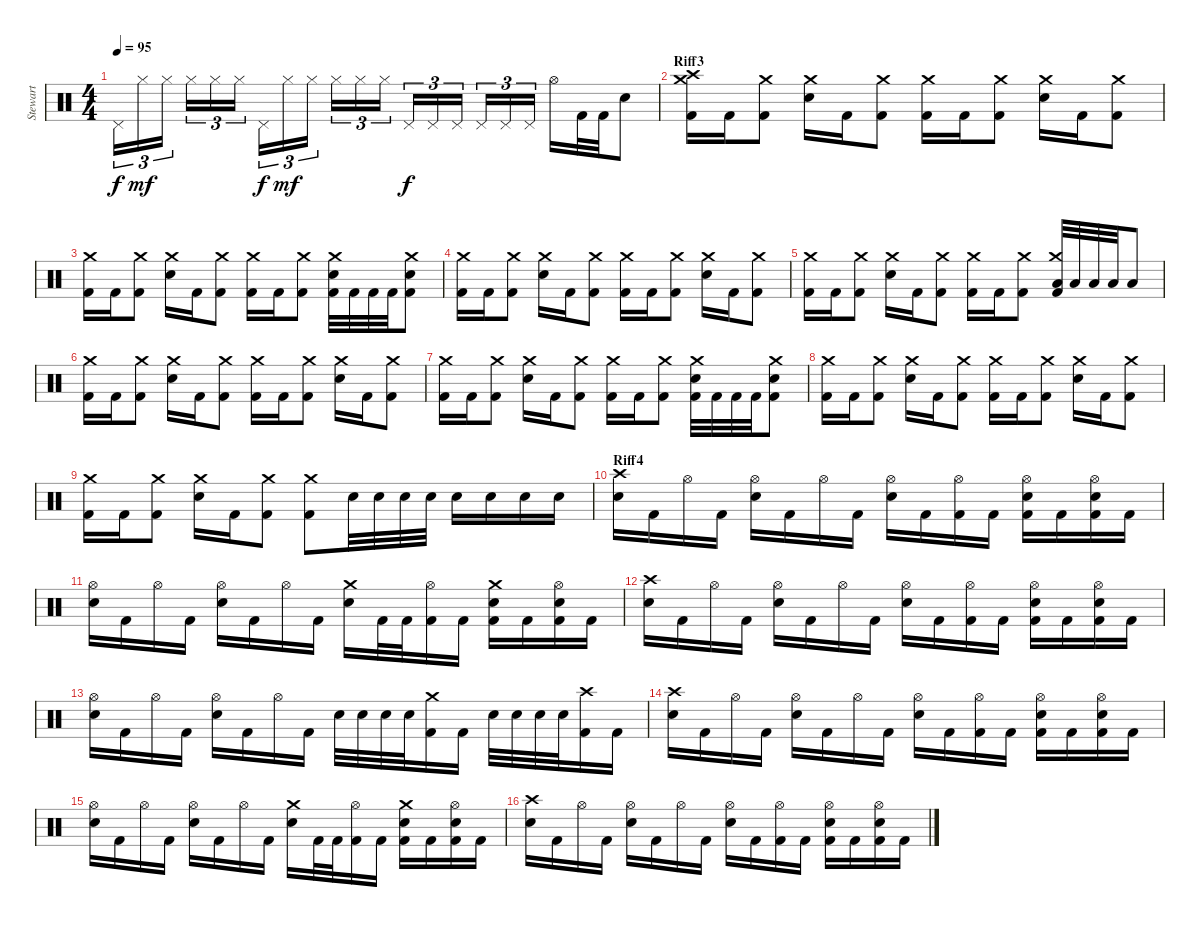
\track ("Stewart" "Stewart") {instrument percussion}
\staff {score}
\articulation defaults
\ts (4 4)
\tempo 95
\clef neutral
\ks c "Pedal Hi-Hat (hit)".16{tu (3 2) dy f} "Hi-Hat (closed)".16{tu (3 2) dy mf} "Hi-Hat (closed)".16{tu (3 2)} "Hi-Hat (closed)".16{tu (3 2)} "Hi-Hat (closed)".16{tu (3 2)} "Hi-Hat (closed)".16{tu (3 2)} "Pedal Hi-Hat (hit)".16{tu (3 2) dy f} "Hi-Hat (closed)".16{tu (3 2) dy mf} "Hi-Hat (closed)".16{tu (3 2)} "Hi-Hat (closed)".16{tu (3 2)} "Hi-Hat (closed)".16{tu (3 2)} "Hi-Hat (closed)".16{tu (3 2)} "Pedal Hi-Hat (hit)".16{tu (3 2) dy f} "Pedal Hi-Hat (hit)".16{tu (3 2)} "Pedal Hi-Hat (hit)".16{tu (3 2)} "Pedal Hi-Hat (hit)".16{tu (3 2)} "Pedal Hi-Hat (hit)".16{tu (3 2)} "Pedal Hi-Hat (hit)".16{tu (3 2)} "Hi-Hat (open)".16 "Kick (hit) 2".32 "Kick (hit) 2".32 "Snare (hit) 2".8
|
\section ("" "Riff3")
("Crash medium (hit)" "Crash high (hit)" "Kick (hit) 2").16 "Kick (hit) 2".16 ("Crash medium (hit)" "Kick (hit) 2").8 ("Crash medium (hit)" "Snare (hit) 2").16 "Kick (hit) 2".16 ("Crash medium (hit)" "Kick (hit) 2").8 ("Crash medium (hit)" "Kick (hit) 2").16 "Kick (hit) 2".16 ("Crash medium (hit)" "Kick (hit) 2").8 ("Crash medium (hit)" "Snare (hit) 2").16 "Kick (hit) 2".16 ("Crash medium (hit)" "Kick (hit) 2").8 |
("Crash medium (hit)" "Kick (hit) 2").16 "Kick (hit) 2".16 ("Crash medium (hit)" "Kick (hit) 2").8 ("Crash medium (hit)" "Snare (hit) 2").16 "Kick (hit) 2".16 ("Crash medium (hit)" "Kick (hit) 2").8 ("Crash medium (hit)" "Kick (hit) 2").16 "Kick (hit) 2".16 ("Crash medium (hit)" "Kick (hit) 2").8 ("Crash medium (hit)" "Snare (hit) 2" "Kick (hit) 2").32 "Kick (hit) 2".32 "Kick (hit) 2".32 "Kick (hit) 2".32 ("Crash medium (hit)" "Snare (hit) 2" "Kick (hit) 2").8 |
("Crash medium (hit)" "Kick (hit) 2").16 "Kick (hit) 2".16 ("Crash medium (hit)" "Kick (hit) 2").8 ("Crash medium (hit)" "Snare (hit) 2").16 "Kick (hit) 2".16 ("Crash medium (hit)" "Kick (hit) 2").8 ("Crash medium (hit)" "Kick (hit) 2").16 "Kick (hit) 2".16 ("Crash medium (hit)" "Kick (hit) 2").8 ("Crash medium (hit)" "Snare (hit) 2").16 "Kick (hit) 2".16 ("Crash medium (hit)" "Kick (hit) 2").8 |
("Crash medium (hit)" "Kick (hit) 2").16 "Kick (hit) 2".16 ("Crash medium (hit)" "Kick (hit) 2").8 ("Crash medium (hit)" "Snare (hit) 2").16 "Kick (hit) 2".16 ("Crash medium (hit)" "Kick (hit) 2").8 ("Crash medium (hit)" "Kick (hit) 2").16 "Kick (hit) 2".16 ("Crash medium (hit)" "Kick (hit) 2").8 ("Crash medium (hit)" "Low Tom (hit)" "Kick (hit) 2").32 "Low Tom (hit)".32 "Low Tom (hit)".32 "Low Tom (hit)".32 "Low Tom (hit)".8 |
("Crash medium (hit)" "Kick (hit) 2").16 "Kick (hit) 2".16 ("Crash medium (hit)" "Kick (hit) 2").8 ("Crash medium (hit)" "Snare (hit) 2").16 "Kick (hit) 2".16 ("Crash medium (hit)" "Kick (hit) 2").8 ("Crash medium (hit)" "Kick (hit) 2").16 "Kick (hit) 2".16 ("Crash medium (hit)" "Kick (hit) 2").8 ("Crash medium (hit)" "Snare (hit) 2").16 "Kick (hit) 2".16 ("Crash medium (hit)" "Kick (hit) 2").8 |
("Crash medium (hit)" "Kick (hit) 2").16 "Kick (hit) 2".16 ("Crash medium (hit)" "Kick (hit) 2").8 ("Crash medium (hit)" "Snare (hit) 2").16 "Kick (hit) 2".16 ("Crash medium (hit)" "Kick (hit) 2").8 ("Crash medium (hit)" "Kick (hit) 2").16 "Kick (hit) 2".16 ("Crash medium (hit)" "Kick (hit) 2").8 ("Crash medium (hit)" "Snare (hit) 2" "Kick (hit) 2").32 "Kick (hit) 2".32 "Kick (hit) 2".32 "Kick (hit) 2".32 ("Crash medium (hit)" "Snare (hit) 2" "Kick (hit) 2").8 |
("Crash medium (hit)" "Kick (hit) 2").16 "Kick (hit) 2".16 ("Crash medium (hit)" "Kick (hit) 2").8 ("Crash medium (hit)" "Snare (hit) 2").16 "Kick (hit) 2".16 ("Crash medium (hit)" "Kick (hit) 2").8 ("Crash medium (hit)" "Kick (hit) 2").16 "Kick (hit) 2".16 ("Crash medium (hit)" "Kick (hit) 2").8 ("Crash medium (hit)" "Snare (hit) 2").16 "Kick (hit) 2".16 ("Crash medium (hit)" "Kick (hit) 2").8 |
("Crash medium (hit)" "Kick (hit) 2").16 "Kick (hit) 2".16 ("Crash medium (hit)" "Kick (hit) 2").8 ("Crash medium (hit)" "Snare (hit) 2").16 "Kick (hit) 2".16 ("Crash medium (hit)" "Kick (hit) 2").8 ("Crash medium (hit)" "Kick (hit) 2").8 "Snare (hit) 2".32 "Snare (hit) 2".32 "Snare (hit) 2".32 "Snare (hit) 2".32 "Snare (hit) 2".16 "Snare (hit) 2".16 "Snare (hit) 2".16 "Snare (hit) 2".16 |
\section ("" "Riff4")
("Crash high (hit)" "Snare (hit) 2").16 "Kick (hit) 2".16 "Hi-Hat (open)".16 "Kick (hit) 2".16 ("Hi-Hat (open)" "Snare (hit) 2").16 "Kick (hit) 2".16 "Hi-Hat (open)".16 "Kick (hit) 2".16 ("Hi-Hat (open)" "Snare (hit) 2").16 "Kick (hit) 2".16 ("Hi-Hat (open)" "Kick (hit) 2").16 "Kick (hit) 2".16 ("Hi-Hat (open)" "Snare (hit) 2" "Kick (hit) 2").16 "Kick (hit) 2".16 ("Hi-Hat (open)" "Snare (hit) 2" "Kick (hit) 2").16 "Kick (hit) 2".16 |
("Hi-Hat (open)" "Snare (hit) 2").16 "Kick (hit) 2".16 "Hi-Hat (open)".16 "Kick (hit) 2".16 ("Hi-Hat (open)" "Snare (hit) 2").16 "Kick (hit) 2".16 "Hi-Hat (open)".16 "Kick (hit) 2".16 ("Crash medium (hit)" "Snare (hit) 2").16 "Kick (hit) 2".32 "Kick (hit) 2".32 ("Hi-Hat (open)" "Kick (hit) 2").16 "Kick (hit) 2".16 ("Crash medium (hit)" "Snare (hit) 2" "Kick (hit) 2").16 "Kick (hit) 2".16 ("Hi-Hat (open)" "Snare (hit) 2" "Kick (hit) 2").16 "Kick (hit) 2".16 |
("Crash high (hit)" "Snare (hit) 2").16 "Kick (hit) 2".16 "Hi-Hat (open)".16 "Kick (hit) 2".16 ("Hi-Hat (open)" "Snare (hit) 2").16 "Kick (hit) 2".16 "Hi-Hat (open)".16 "Kick (hit) 2".16 ("Hi-Hat (open)" "Snare (hit) 2").16 "Kick (hit) 2".16 ("Hi-Hat (open)" "Kick (hit) 2").16 "Kick (hit) 2".16 ("Hi-Hat (open)" "Snare (hit) 2" "Kick (hit) 2").16 "Kick (hit) 2".16 ("Hi-Hat (open)" "Snare (hit) 2" "Kick (hit) 2").16 "Kick (hit) 2".16 |
("Hi-Hat (open)" "Snare (hit) 2").16 "Kick (hit) 2".16 "Hi-Hat (open)".16 "Kick (hit) 2".16 ("Hi-Hat (open)" "Snare (hit) 2").16 "Kick (hit) 2".16 "Hi-Hat (open)".16 "Kick (hit) 2".16 "Snare (hit) 2".32 "Snare (hit) 2".32 "Snare (hit) 2".32 "Snare (hit) 2".32 ("Crash medium (hit)" "Kick (hit) 2").16 "Kick (hit) 2".16 "Snare (hit) 2".32 "Snare (hit) 2".32 "Snare (hit) 2".32 "Snare (hit) 2".32 ("Crash high (hit)" "Kick (hit) 2").16 "Kick (hit) 2".16 |
("Crash high (hit)" "Snare (hit) 2").16 "Kick (hit) 2".16 "Hi-Hat (open)".16 "Kick (hit) 2".16 ("Hi-Hat (open)" "Snare (hit) 2").16 "Kick (hit) 2".16 "Hi-Hat (open)".16 "Kick (hit) 2".16 ("Hi-Hat (open)" "Snare (hit) 2").16 "Kick (hit) 2".16 ("Hi-Hat (open)" "Kick (hit) 2").16 "Kick (hit) 2".16 ("Hi-Hat (open)" "Snare (hit) 2" "Kick (hit) 2").16 "Kick (hit) 2".16 ("Hi-Hat (open)" "Snare (hit) 2" "Kick (hit) 2").16 "Kick (hit) 2".16 |
("Hi-Hat (open)" "Snare (hit) 2").16 "Kick (hit) 2".16 "Hi-Hat (open)".16 "Kick (hit) 2".16 ("Hi-Hat (open)" "Snare (hit) 2").16 "Kick (hit) 2".16 "Hi-Hat (open)".16 "Kick (hit) 2".16 ("Crash medium (hit)" "Snare (hit) 2").16 "Kick (hit) 2".32 "Kick (hit) 2".32 ("Hi-Hat (open)" "Kick (hit) 2").16 "Kick (hit) 2".16 ("Crash medium (hit)" "Snare (hit) 2" "Kick (hit) 2").16 "Kick (hit) 2".16 ("Hi-Hat (open)" "Snare (hit) 2" "Kick (hit) 2").16 "Kick (hit) 2".16 |
("Crash high (hit)" "Snare (hit) 2").16 "Kick (hit) 2".16 "Hi-Hat (open)".16 "Kick (hit) 2".16 ("Hi-Hat (open)" "Snare (hit) 2").16 "Kick (hit) 2".16 "Hi-Hat (open)".16 "Kick (hit) 2".16 ("Hi-Hat (open)" "Snare (hit) 2").16 "Kick (hit) 2".16 ("Hi-Hat (open)" "Kick (hit) 2").16 "Kick (hit) 2".16 ("Hi-Hat (open)" "Snare (hit) 2" "Kick (hit) 2").16 "Kick (hit) 2".16 ("Hi-Hat (open)" "Snare (hit) 2" "Kick (hit) 2").16 "Kick (hit) 2".16
